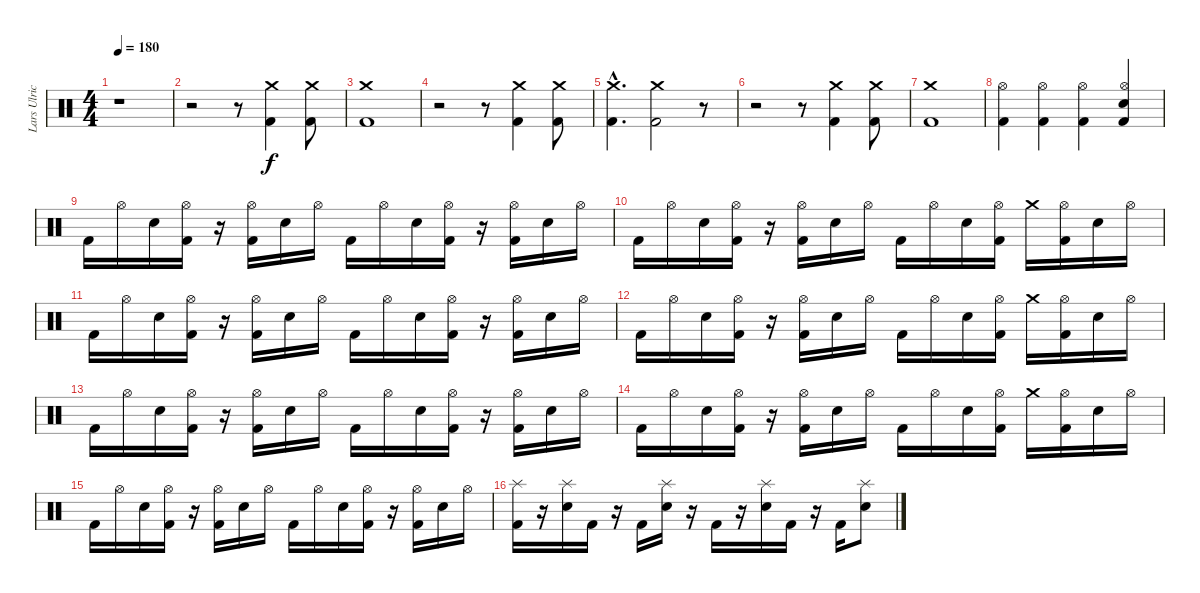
\track ("Lars Ulrich" "Lars Ulric") {instrument percussion}
\staff {score}
\articulation defaults
\ts (4 4)
\tempo 180
\clef neutral
\ks c
r.1{dy f} |
r.2 r.8 ("Crash medium (hit)" "Kick (hit) 2").4 ("Crash medium (hit)" "Kick (hit) 2").8 |
("Crash medium (hit)" "Kick (hit) 2").1 |
r.2 r.8 ("Crash medium (hit)" "Kick (hit) 2").4 ("Crash medium (hit)" "Kick (hit) 2").8 |
("Crash medium (hit)"{hac} "Kick (hit) 2"{hac}).4{d} ("Crash medium (hit)" "Kick (hit) 2").2 r.8 |
r.2 r.8 ("Crash medium (hit)" "Kick (hit) 2").4 ("Crash medium (hit)" "Kick (hit) 2").8 |
("Crash medium (hit)" "Kick (hit) 2").1 |
("Hi-Hat (open)" "Kick (hit) 2").4 ("Hi-Hat (open)" "Kick (hit) 2").4 ("Hi-Hat (open)" "Kick (hit) 2").4 ("Hi-Hat (open)" "Electric Snare (hit)" "Kick (hit) 2").4 |
"Kick (hit) 2".16 "Hi-Hat (open)".16 "Electric Snare (hit)".16 ("Hi-Hat (open)" "Kick (hit) 2").16 r.16 ("Hi-Hat (open)" "Kick (hit) 2").16 "Electric Snare (hit)".16 "Hi-Hat (open)".16 "Kick (hit) 2".16 "Hi-Hat (open)".16 "Electric Snare (hit)".16 ("Hi-Hat (open)" "Kick (hit) 2").16 r.16 ("Hi-Hat (open)" "Kick (hit) 2").16 "Electric Snare (hit)".16 "Hi-Hat (open)".16 |
"Kick (hit) 2".16 "Hi-Hat (open)".16 "Electric Snare (hit)".16 ("Hi-Hat (open)" "Kick (hit) 2").16 r.16 ("Hi-Hat (open)" "Kick (hit) 2").16 "Electric Snare (hit)".16 "Hi-Hat (open)".16 "Kick (hit) 2".16 "Hi-Hat (open)".16 "Electric Snare (hit)".16 ("Hi-Hat (open)" "Kick (hit) 2").16 "Crash medium (hit)".16 ("Hi-Hat (open)" "Kick (hit) 2").16 "Electric Snare (hit)".16 "Hi-Hat (open)".16 |
"Kick (hit) 2".16 "Hi-Hat (open)".16 "Electric Snare (hit)".16 ("Hi-Hat (open)" "Kick (hit) 2").16 r.16 ("Hi-Hat (open)" "Kick (hit) 2").16 "Electric Snare (hit)".16 "Hi-Hat (open)".16 "Kick (hit) 2".16 "Hi-Hat (open)".16 "Electric Snare (hit)".16 ("Hi-Hat (open)" "Kick (hit) 2").16 r.16 ("Hi-Hat (open)" "Kick (hit) 2").16 "Electric Snare (hit)".16 "Hi-Hat (open)".16 |
"Kick (hit) 2".16 "Hi-Hat (open)".16 "Electric Snare (hit)".16 ("Hi-Hat (open)" "Kick (hit) 2").16 r.16 ("Hi-Hat (open)" "Kick (hit) 2").16 "Electric Snare (hit)".16 "Hi-Hat (open)".16 "Kick (hit) 2".16 "Hi-Hat (open)".16 "Electric Snare (hit)".16 ("Hi-Hat (open)" "Kick (hit) 2").16 "Crash medium (hit)".16 ("Hi-Hat (open)" "Kick (hit) 2").16 "Electric Snare (hit)".16 "Hi-Hat (open)".16 |
"Kick (hit) 2".16 "Hi-Hat (open)".16 "Electric Snare (hit)".16 ("Hi-Hat (open)" "Kick (hit) 2").16 r.16 ("Hi-Hat (open)" "Kick (hit) 2").16 "Electric Snare (hit)".16 "Hi-Hat (open)".16 "Kick (hit) 2".16 "Hi-Hat (open)".16 "Electric Snare (hit)".16 ("Hi-Hat (open)" "Kick (hit) 2").16 r.16 ("Hi-Hat (open)" "Kick (hit) 2").16 "Electric Snare (hit)".16 "Hi-Hat (open)".16 |
"Kick (hit) 2".16 "Hi-Hat (open)".16 "Electric Snare (hit)".16 ("Hi-Hat (open)" "Kick (hit) 2").16 r.16 ("Hi-Hat (open)" "Kick (hit) 2").16 "Electric Snare (hit)".16 "Hi-Hat (open)".16 "Kick (hit) 2".16 "Hi-Hat (open)".16 "Electric Snare (hit)".16 ("Hi-Hat (open)" "Kick (hit) 2").16 "Crash medium (hit)".16 ("Hi-Hat (open)" "Kick (hit) 2").16 "Electric Snare (hit)".16 "Hi-Hat (open)".16 |
"Kick (hit) 2".16 "Hi-Hat (open)".16 "Electric Snare (hit)".16 ("Hi-Hat (open)" "Kick (hit) 2").16 r.16 ("Hi-Hat (open)" "Kick (hit) 2").16 "Electric Snare (hit)".16 "Hi-Hat (open)".16 "Kick (hit) 2".16 "Hi-Hat (open)".16 "Electric Snare (hit)".16 ("Hi-Hat (open)" "Kick (hit) 2").16 r.16 ("Hi-Hat (open)" "Kick (hit) 2").16 "Electric Snare (hit)".16 "Hi-Hat (open)".16 |
("Splash (hit)" "Kick (hit) 2").16 r.16 ("Splash (hit)" "Electric Snare (hit)").16 "Kick (hit) 2".16 r.16 "Kick (hit) 2".16 ("Splash (hit)" "Electric Snare (hit)").16 r.16 "Kick (hit) 2".16 r.16 ("Splash (hit)" "Electric Snare (hit)").16 "Kick (hit) 2".16 r.16 "Kick (hit) 2".16 ("Splash (hit)" "Electric Snare (hit)").8
